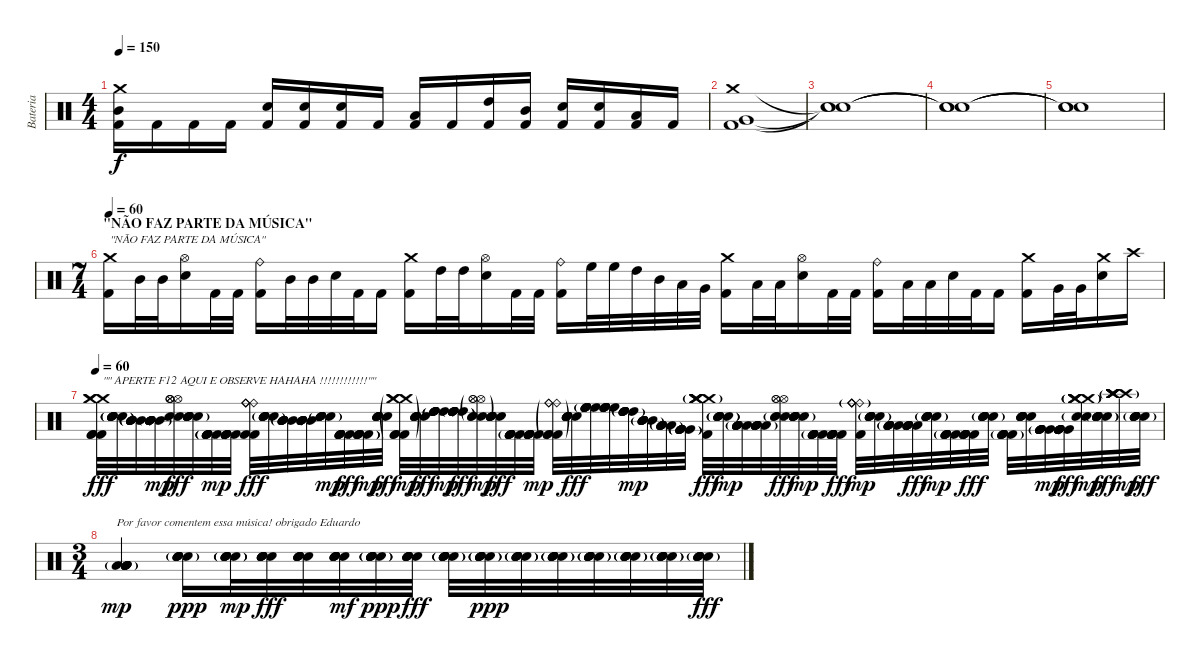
\track ("Bateria" "Bateria") {instrument percussion}
\staff {score}
\articulation defaults
\ts (4 4)
\tempo 150
\clef neutral
\ks c
("Kick (hit) 2" "Mid Tom (hit)" "Crash medium (hit)").16{dy f} "Kick (hit) 2".16 "Kick (hit) 2".16 "Kick (hit) 2".16 ("Kick (hit) 2" "Electric Snare (hit)").16 ("Kick (hit) 2" "Electric Snare (hit)").16 ("Kick (hit) 2" "Electric Snare (hit)").16 "Kick (hit) 2".16 ("Kick (hit) 2" "Low Tom (hit)").16 "Kick (hit) 2".16 ("Kick (hit) 2" "High Tom (hit)").16 ("Kick (hit) 2" "Mid Tom (hit)").16 ("Kick (hit) 2" "Electric Snare (hit)").16 ("Kick (hit) 2" "Electric Snare (hit)").16 ("Kick (hit) 2" "Low Tom (hit)").16 "Kick (hit) 2".16 |
("Kick (hit) 2" "Very Low Tom (hit)" "Crash medium (hit)").1 |
("Snare (hit)"{t} "Snare (hit)"{t} "Snare (hit)"{t}).1 |
("Snare (hit)"{t} "Snare (hit)"{t} "Snare (hit)"{t}).1 |
("Snare (hit)"{t} "Snare (hit)"{t} "Snare (hit)"{t}).1 |
\ts (7 4)
\section ("" "\"NÃO FAZ PARTE DA MÚSICA\"")
\tempo 60
("Kick (hit) 2" "Crash medium (hit)").16{txt "\"NÃO FAZ PARTE DA MÚSICA\""} "Mid Tom (hit)".32 "Mid Tom (hit)".32 ("Electric Snare (hit)" "Hi-Hat (open)").16 "Kick (hit) 2".32 "Kick (hit) 2".32 ("Kick (hit) 2" "Ride (bell)").16 "Mid Tom (hit)".32 "Mid Tom (hit)".32 "Electric Snare (hit)".32 "Kick (hit) 2".32 "Kick (hit) 2".16 ("Kick (hit) 2" "Crash medium (hit)").16 "High Tom (hit)".32 "High Tom (hit)".32 ("Electric Snare (hit)" "Hi-Hat (open)").16 "Kick (hit) 2".32 "Kick (hit) 2".32 ("Kick (hit) 2" "Ride (bell)").16 "High Floor Tom (hit)".32 "High Floor Tom (hit)".32 "High Tom (hit)".32 "Mid Tom (hit)".32 "Low Tom (hit)".32 "Very Low Tom (hit)".32 ("Kick (hit) 2" "Crash medium (hit)").16 "Low Tom (hit)".32 "Low Tom (hit)".32 ("Electric Snare (hit)" "Hi-Hat (open)").16 "Kick (hit) 2".32 "Kick (hit) 2".32 ("Kick (hit) 2" "Ride (bell)").16 "Low Tom (hit)".32 "Low Tom (hit)".32 "Electric Snare (hit)".32 "Kick (hit) 2".32 "Kick (hit) 2".16 ("Kick (hit) 2" "Crash medium (hit)").16 "Very Low Tom (hit)".32 "Very Low Tom (hit)".32 ("Electric Snare (hit)" "Crash medium (hit)").16 "Crash high (hit)".16 |
\tempo 60
("Kick (hit) 2" "Kick (hit) 2" "Kick (hit) 2" "Crash medium (hit)" "Crash medium (hit)" "Crash medium (hit)").32{txt "\"\" APERTE F12 AQUI E OBSERVE HAHAHA !!!!!!!!!!!!\"\"" dy fff volume 8} ("Snare (hit)" "Snare (hit)"{g} "Snare (hit)" "Snare (hit)"{g} "Snare (hit)"{g} "Snare (hit)").32 ("Mid Tom (hit)" "Mid Tom (hit)"{g} "Mid Tom (hit)" "Mid Tom (hit)"{g} "Mid Tom (hit)"{g} "Mid Tom (hit)").32 ("Mid Tom (hit)"{g} "Mid Tom (hit)"{g} "Mid Tom (hit)"{g} "Mid Tom (hit)"{g} "Mid Tom (hit)"{g} "Mid Tom (hit)"{g}).32{dy mp} ("Electric Snare (hit)" "Electric Snare (hit)" "Hi-Hat (open)" "Hi-Hat (open)" "Hi-Hat (open)" "Hi-Hat (open)").32{dy fff} ("Snare (hit)" "Snare (hit)"{g} "Snare (hit)"{g} "Snare (hit)"{g} "Snare (hit)"{g} "Snare (hit)").32 ("Kick (hit) 2"{g} "Kick (hit) 2" "Kick (hit) 2" "Kick (hit) 2" "Kick (hit) 2" "Kick (hit) 2"{g}).32{dy mp} ("Kick (hit) 2"{g} "Kick (hit) 2"{g} "Kick (hit) 2"{g} "Kick (hit) 2"{g} "Kick (hit) 2"{g} "Kick (hit) 2"{g}).32 ("Kick (hit) 2" "Kick (hit) 2" "Ride (bell)" "Ride (bell)" "Ride (bell)" "Ride (bell)").32{dy fff} ("Snare (hit)"{g} "Snare (hit)"{g} "Snare (hit)"{g} "Snare (hit)"{g} "Snare (hit)"{g} "Snare (hit)").32 ("Mid Tom (hit)"{g} "Mid Tom (hit)"{g} "Mid Tom (hit)"{g} "Mid Tom (hit)"{g} "Mid Tom (hit)"{g} "Mid Tom (hit)").32 ("Mid Tom (hit)" "Mid Tom (hit)" "Mid Tom (hit)" "Mid Tom (hit)" "Mid Tom (hit)" "Mid Tom (hit)").32 ("Electric Snare (hit)"{g} "Electric Snare (hit)"{g} "Electric Snare (hit)"{g} "Electric Snare (hit)"{g} "Electric Snare (hit)"{g} "Electric Snare (hit)"{g}).32{dy mp} ("Kick (hit) 2" "Kick (hit) 2" "Kick (hit) 2" "Kick (hit) 2" "Kick (hit) 2" "Kick (hit) 2").32{dy fff} ("Kick (hit) 2" "Kick (hit) 2"{g} "Kick (hit) 2"{g} "Kick (hit) 2" "Kick (hit) 2"{g} "Kick (hit) 2"{g}).32{dy mp} ("Snare (hit)" "Snare (hit)" "Snare (hit)" "Snare (hit)" "Snare (hit)" "Snare (hit)").32{dy fff} ("Kick (hit) 2"{g} "Kick (hit) 2"{g} "Kick (hit) 2"{g} "Crash medium (hit)"{g} "Crash medium (hit)"{g} "Crash medium (hit)"{g}).32{dy mp} ("Snare (hit)" "Snare (hit)" "Snare (hit)" "Snare (hit)" "Snare (hit)" "Snare (hit)").32{dy fff} ("High Tom (hit)" "High Tom (hit)"{g} "High Tom (hit)"{g} "High Tom (hit)" "High Tom (hit)"{g} "High Tom (hit)"{g}).32{dy mp} ("High Tom (hit)"{g} "High Tom (hit)" "High Tom (hit)" "High Tom (hit)"{g} "High Tom (hit)" "High Tom (hit)").32{dy fff} ("Electric Snare (hit)"{g} "Electric Snare (hit)"{g} "Electric Snare (hit)"{g} "Hi-Hat (open)"{g} "Hi-Hat (open)"{g} "Hi-Hat (open)"{g}).32{dy mp} ("Snare (hit)" "Snare (hit)" "Snare (hit)" "Snare (hit)" "Snare (hit)" "Snare (hit)").32{dy fff} ("Kick (hit) 2" "Kick (hit) 2"{g} "Kick (hit) 2"{g} "Kick (hit) 2"{g} "Kick (hit) 2"{g} "Kick (hit) 2").32 ("Kick (hit) 2"{g} "Kick (hit) 2" "Kick (hit) 2" "Kick (hit) 2" "Kick (hit) 2" "Kick (hit) 2"{g}).32{dy mp} ("Kick (hit) 2"{g} "Kick (hit) 2"{g} "Kick (hit) 2"{g} "Ride (bell)"{g} "Ride (bell)"{g} "Ride (bell)"{g}).32 ("Snare (hit)" "Snare (hit)" "Snare (hit)" "Snare (hit)" "Snare (hit)" "Snare (hit)").32{dy fff} ("High Floor Tom (hit)" "High Floor Tom (hit)"{g} "High Floor Tom (hit)"{g} "High Floor Tom (hit)"{g} "High Floor Tom (hit)"{g} "High Floor Tom (hit)").32 ("High Floor Tom (hit)" "High Floor Tom (hit)" "High Floor Tom (hit)" "High Floor Tom (hit)" "High Floor Tom (hit)" "High Floor Tom (hit)").32 ("High Tom (hit)"{g} "High Tom (hit)"{g} "High Tom (hit)"{g} "High Tom (hit)"{g} "High Tom (hit)"{g} "High Tom (hit)"{g}).32{dy mp} ("Mid Tom (hit)"{g} "Mid Tom (hit)"{g} "Mid Tom (hit)"{g} "Mid Tom (hit)"{g} "Mid Tom (hit)"{g} "Mid Tom (hit)"{g}).32 ("Low Tom (hit)" "Low Tom (hit)" "Low Tom (hit)" "Low Tom (hit)"{g} "Low Tom (hit)"{g} "Low Tom (hit)"{g}).32 ("Very Low Tom (hit)"{g} "Very Low Tom (hit)"{g} "Very Low Tom (hit)"{g} "Very Low Tom (hit)" "Very Low Tom (hit)" "Very Low Tom (hit)"{g}).32 ("Crash medium (hit)"{g} "Crash medium (hit)"{g} "Crash medium (hit)"{g} "Crash medium (hit)"{g} "Crash medium (hit)"{g} "Kick (hit) 2").32{dy fff} ("Snare (hit)"{g} "Snare (hit)"{g} "Snare (hit)"{g} "Snare (hit)" "Snare (hit)" "Snare (hit)"{g}).32{dy mp} ("Low Tom (hit)" "Low Tom (hit)" "Low Tom (hit)" "Low Tom (hit)"{g} "Low Tom (hit)"{g} "Low Tom (hit)"{g}).32 ("Low Tom (hit)"{g} "Low Tom (hit)"{g} "Low Tom (hit)"{g} "Low Tom (hit)"{g} "Low Tom (hit)"{g} "Low Tom (hit)"{g}).32 ("Electric Snare (hit)" "Electric Snare (hit)"{g} "Electric Snare (hit)" "Hi-Hat (open)" "Hi-Hat (open)" "Hi-Hat (open)").32{dy fff} ("Snare (hit)"{g} "Snare (hit)"{g} "Snare (hit)"{g} "Snare (hit)"{g} "Snare (hit)"{g} "Snare (hit)"{g}).32{dy mp} ("Kick (hit) 2" "Kick (hit) 2"{g} "Kick (hit) 2"{g} "Kick (hit) 2"{g} "Kick (hit) 2"{g} "Kick (hit) 2"{g}).32 ("Kick (hit) 2" "Kick (hit) 2" "Kick (hit) 2" "Kick (hit) 2" "Kick (hit) 2" "Kick (hit) 2").32{dy fff} ("Kick (hit) 2" "Ride (bell)"{g} "Ride (bell)"{g} "Ride (bell)"{g} "Ride (bell)"{g} "Ride (bell)"{g}).32{dy mp} ("Snare (hit)"{g} "Snare (hit)"{g} "Snare (hit)"{g} "Snare (hit)"{g} "Snare (hit)"{g} "Snare (hit)"{g}).32 ("Low Tom (hit)" "Low Tom (hit)"{g} "Low Tom (hit)"{g} "Low Tom (hit)"{g} "Low Tom (hit)"{g} "Low Tom (hit)"{g}).32 ("Low Tom (hit)" "Low Tom (hit)" "Low Tom (hit)" "Low Tom (hit)" "Low Tom (hit)" "Low Tom (hit)").32{dy fff} ("Electric Snare (hit)" "Electric Snare (hit)"{g} "Electric Snare (hit)"{g} "Electric Snare (hit)"{g} "Electric Snare (hit)"{g} "Electric Snare (hit)"{g}).32{dy mp} ("Kick (hit) 2"{g} "Kick (hit) 2"{g} "Kick (hit) 2"{g} "Kick (hit) 2"{g} "Kick (hit) 2"{g} "Kick (hit) 2"{g}).32 ("Kick (hit) 2" "Kick (hit) 2" "Kick (hit) 2" "Kick (hit) 2" "Kick (hit) 2" "Kick (hit) 2").32{dy fff} ("Snare (hit)"{g} "Snare (hit)"{g} "Snare (hit)"{g} "Snare (hit)"{g} "Snare (hit)"{g} "Snare (hit)").32 ("Kick (hit) 2"{g} "Kick (hit) 2"{g} "Kick (hit) 2"{g} "Kick (hit) 2"{g} "Kick (hit) 2"{g} "Kick (hit) 2").32 ("Snare (hit)" "Snare (hit)" "Snare (hit)" "Snare (hit)" "Snare (hit)" "Snare (hit)").32 ("Very Low Tom (hit)"{g} "Very Low Tom (hit)"{g} "Very Low Tom (hit)"{g} "Very Low Tom (hit)"{g} "Very Low Tom (hit)"{g} "Very Low Tom (hit)"{g}).32{dy mp} ("Very Low Tom (hit)" "Very Low Tom (hit)" "Very Low Tom (hit)" "Very Low Tom (hit)" "Very Low Tom (hit)" "Very Low Tom (hit)").32{dy fff} ("Electric Snare (hit)" "Electric Snare (hit)"{g} "Crash medium (hit)"{g} "Crash medium (hit)" "Crash medium (hit)"{g} "Crash medium (hit)"{g}).32{dy mp} ("Snare (hit)"{g} "Snare (hit)" "Snare (hit)" "Snare (hit)"{g} "Snare (hit)" "Snare (hit)").32{dy fff} ("Crash high (hit)"{g} "Crash high (hit)"{g} "Crash high (hit)"{g} "Crash high (hit)"{g} "Crash high (hit)"{g} "Crash high (hit)"{g}).32{dy mp} ("Snare (hit)" "Snare (hit)"{g} "Snare (hit)" "Snare (hit)" "Snare (hit)" "Snare (hit)").32{dy fff} |
\ts (3 4)
("Low Tom (hit)"{g} "Low Tom (hit)"{g} "Low Tom (hit)"{g} "Low Tom (hit)"{g} "Low Tom (hit)"{g} "Low Tom (hit)"{g}).4{txt "Por favor comentem essa música! obrigado Eduardo" dy mp} ("Snare (hit)"{g} "Snare (hit)"{g} "Snare (hit)"{g} "Snare (hit)"{g} "Snare (hit)"{g} "Snare (hit)"{g}).16{dy ppp} ("Snare (hit)"{g} "Snare (hit)" "Snare (hit)" "Snare (hit)" "Snare (hit)" "Snare (hit)"{g}).32{dy mp} ("Snare (hit)" "Snare (hit)" "Snare (hit)" "Snare (hit)" "Snare (hit)" "Snare (hit)").32{dy fff} ("Snare (hit)" "Snare (hit)" "Snare (hit)" "Snare (hit)" "Snare (hit)" "Snare (hit)").32 ("Snare (hit)" "Snare (hit)" "Snare (hit)" "Snare (hit)" "Snare (hit)" "Snare (hit)").32{dy mf} ("Snare (hit)"{g} "Snare (hit)" "Snare (hit)" "Snare (hit)" "Snare (hit)" "Snare (hit)"{g}).32{dy ppp} ("Snare (hit)" "Snare (hit)" "Snare (hit)" "Snare (hit)" "Snare (hit)" "Snare (hit)").32{dy fff} ("Snare (hit)" "Snare (hit)"{g} "Snare (hit)" "Snare (hit)" "Snare (hit)"{g} "Snare (hit)").32 ("Snare (hit)"{g} "Snare (hit)"{g} "Snare (hit)" "Snare (hit)" "Snare (hit)"{g} "Snare (hit)"{g}).32{dy ppp} ("Snare (hit)"{g} "Snare (hit)"{g} "Snare (hit)" "Snare (hit)" "Snare (hit)"{g} "Snare (hit)"{g}).32 ("Snare (hit)"{g} "Snare (hit)"{g} "Snare (hit)" "Snare (hit)" "Snare (hit)"{g} "Snare (hit)"{g}).32 ("Snare (hit)"{g} "Snare (hit)"{g} "Snare (hit)" "Snare (hit)" "Snare (hit)"{g} "Snare (hit)"{g}).32 ("Snare (hit)"{g} "Snare (hit)"{g} "Snare (hit)" "Snare (hit)" "Snare (hit)"{g} "Snare (hit)"{g}).32 ("Snare (hit)"{g} "Snare (hit)" "Snare (hit)" "Snare (hit)" "Snare (hit)" "Snare (hit)"{g}).32 ("Snare (hit)"{g} "Snare (hit)"{g} "Snare (hit)" "Snare (hit)" "Snare (hit)" "Snare (hit)").32{dy fff}
